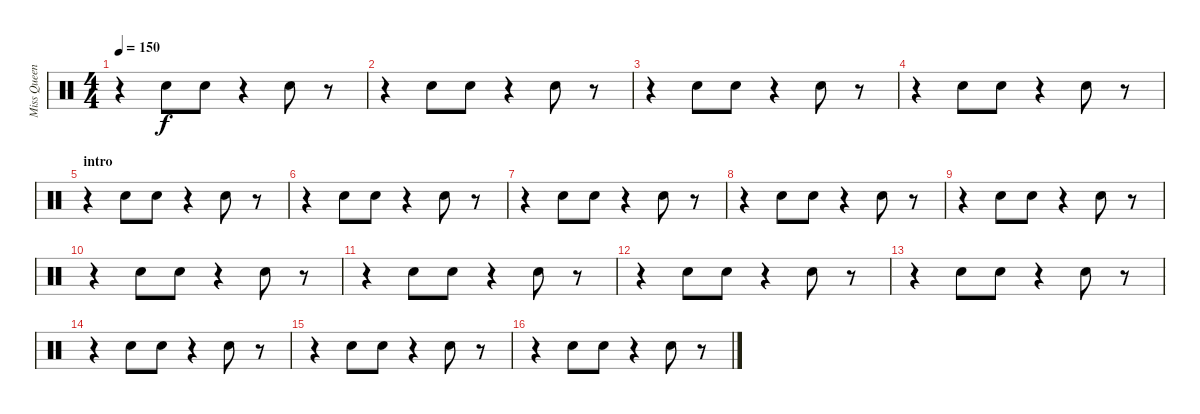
\track ("Miss Queen B(rodie)" "Miss Queen") {instrument percussion}
\staff {score}
\articulation defaults
\ts (4 4)
\section ("" "")
\tempo 150
\clef neutral
\ks c
r.4{dy f} "Hand Clap (hit)".8 "Hand Clap (hit)".8 r.4 "Hand Clap (hit)".8 r.8 |
r.4 "Hand Clap (hit)".8 "Hand Clap (hit)".8 r.4 "Hand Clap (hit)".8 r.8 |
r.4 "Hand Clap (hit)".8 "Hand Clap (hit)".8 r.4 "Hand Clap (hit)".8 r.8 |
r.4 "Hand Clap (hit)".8 "Hand Clap (hit)".8 r.4 "Hand Clap (hit)".8 r.8 |
\section ("" "intro")
r.4 "Hand Clap (hit)".8 "Hand Clap (hit)".8 r.4 "Hand Clap (hit)".8 r.8 |
r.4 "Hand Clap (hit)".8 "Hand Clap (hit)".8 r.4 "Hand Clap (hit)".8 r.8 |
r.4 "Hand Clap (hit)".8 "Hand Clap (hit)".8 r.4 "Hand Clap (hit)".8 r.8 |
r.4 "Hand Clap (hit)".8 "Hand Clap (hit)".8 r.4 "Hand Clap (hit)".8 r.8 |
\section ("" "")
r.4 "Hand Clap (hit)".8 "Hand Clap (hit)".8 r.4 "Hand Clap (hit)".8 r.8 |
r.4 "Hand Clap (hit)".8 "Hand Clap (hit)".8 r.4 "Hand Clap (hit)".8 r.8 |
r.4 "Hand Clap (hit)".8 "Hand Clap (hit)".8 r.4 "Hand Clap (hit)".8 r.8 |
r.4 "Hand Clap (hit)".8 "Hand Clap (hit)".8 r.4 "Hand Clap (hit)".8 r.8 |
\section ("" "")
r.4 "Hand Clap (hit)".8 "Hand Clap (hit)".8 r.4 "Hand Clap (hit)".8 r.8 |
r.4 "Hand Clap (hit)".8 "Hand Clap (hit)".8 r.4 "Hand Clap (hit)".8 r.8 |
r.4 "Hand Clap (hit)".8 "Hand Clap (hit)".8 r.4 "Hand Clap (hit)".8 r.8 |
r.4 "Hand Clap (hit)".8 "Hand Clap (hit)".8 r.4 "Hand Clap (hit)".8 r.8
